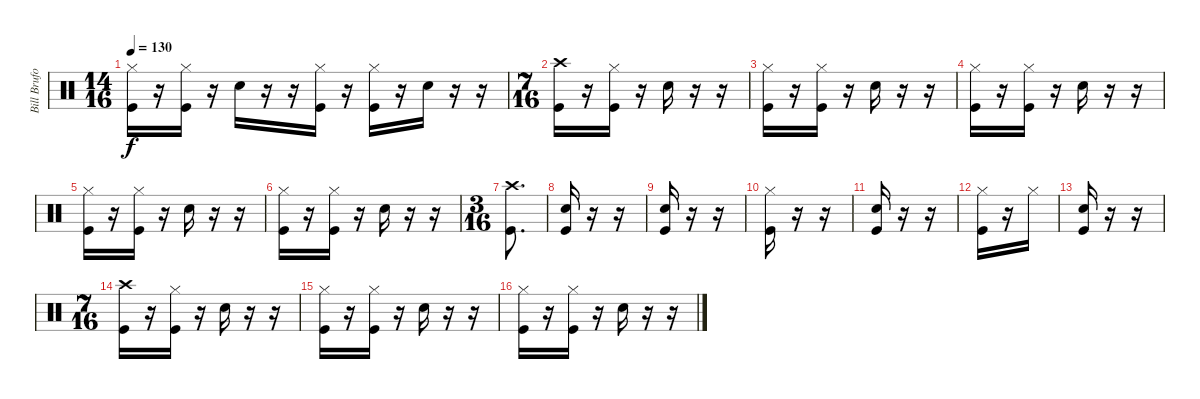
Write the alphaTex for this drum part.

\track ("Bill Bruford" "Bill Brufo") {instrument percussion}
\staff {score}
\articulation defaults
\ts (14 16)
\tempo 130
\clef neutral
\ks c
("Hi-Hat (closed)" "Kick (hit)").16{dy f} r.16 ("Hi-Hat (closed)" "Kick (hit)").16 r.16 "Snare (hit) 2".16 r.16 r.16 ("Hi-Hat (closed)" "Kick (hit)").16 r.16 ("Hi-Hat (closed)" "Kick (hit)").16 r.16 "Snare (hit) 2".16 r.16 r.16 |
\ts (7 16)
("Crash high (hit)" "Kick (hit)").16 r.16 ("Hi-Hat (closed)" "Kick (hit)").16 r.16 "Snare (hit) 2".16 r.16 r.16 |
("Hi-Hat (closed)" "Kick (hit)").16 r.16 ("Hi-Hat (closed)" "Kick (hit)").16 r.16 "Snare (hit) 2".16 r.16 r.16 |
("Hi-Hat (closed)" "Kick (hit)").16 r.16 ("Hi-Hat (closed)" "Kick (hit)").16 r.16 "Snare (hit) 2".16 r.16 r.16 |
("Hi-Hat (closed)" "Kick (hit)").16 r.16 ("Hi-Hat (closed)" "Kick (hit)").16 r.16 "Snare (hit) 2".16 r.16 r.16 |
("Hi-Hat (closed)" "Kick (hit)").16 r.16 ("Hi-Hat (closed)" "Kick (hit)").16 r.16 "Snare (hit) 2".16 r.16 r.16 |
\ts (3 16)
("Crash high (hit)" "Kick (hit)").8{d} |
("Snare (hit) 2" "Kick (hit)").16 r.16 r.16 |
("Snare (hit) 2" "Kick (hit)").16 r.16 r.16 |
("Hi-Hat (closed)" "Kick (hit)").16 r.16 r.16 |
("Snare (hit) 2" "Kick (hit)").16 r.16 r.16 |
("Hi-Hat (closed)" "Kick (hit)").16 r.16 "Hi-Hat (closed)".16 |
("Snare (hit) 2" "Kick (hit)").16 r.16 r.16 |
\ts (7 16)
("Crash high (hit)" "Kick (hit)").16 r.16 ("Hi-Hat (closed)" "Kick (hit)").16 r.16 "Snare (hit) 2".16 r.16 r.16 |
("Hi-Hat (closed)" "Kick (hit)").16 r.16 ("Hi-Hat (closed)" "Kick (hit)").16 r.16 "Snare (hit) 2".16 r.16 r.16 |
("Hi-Hat (closed)" "Kick (hit)").16 r.16 ("Hi-Hat (closed)" "Kick (hit)").16 r.16 "Snare (hit) 2".16 r.16 r.16
